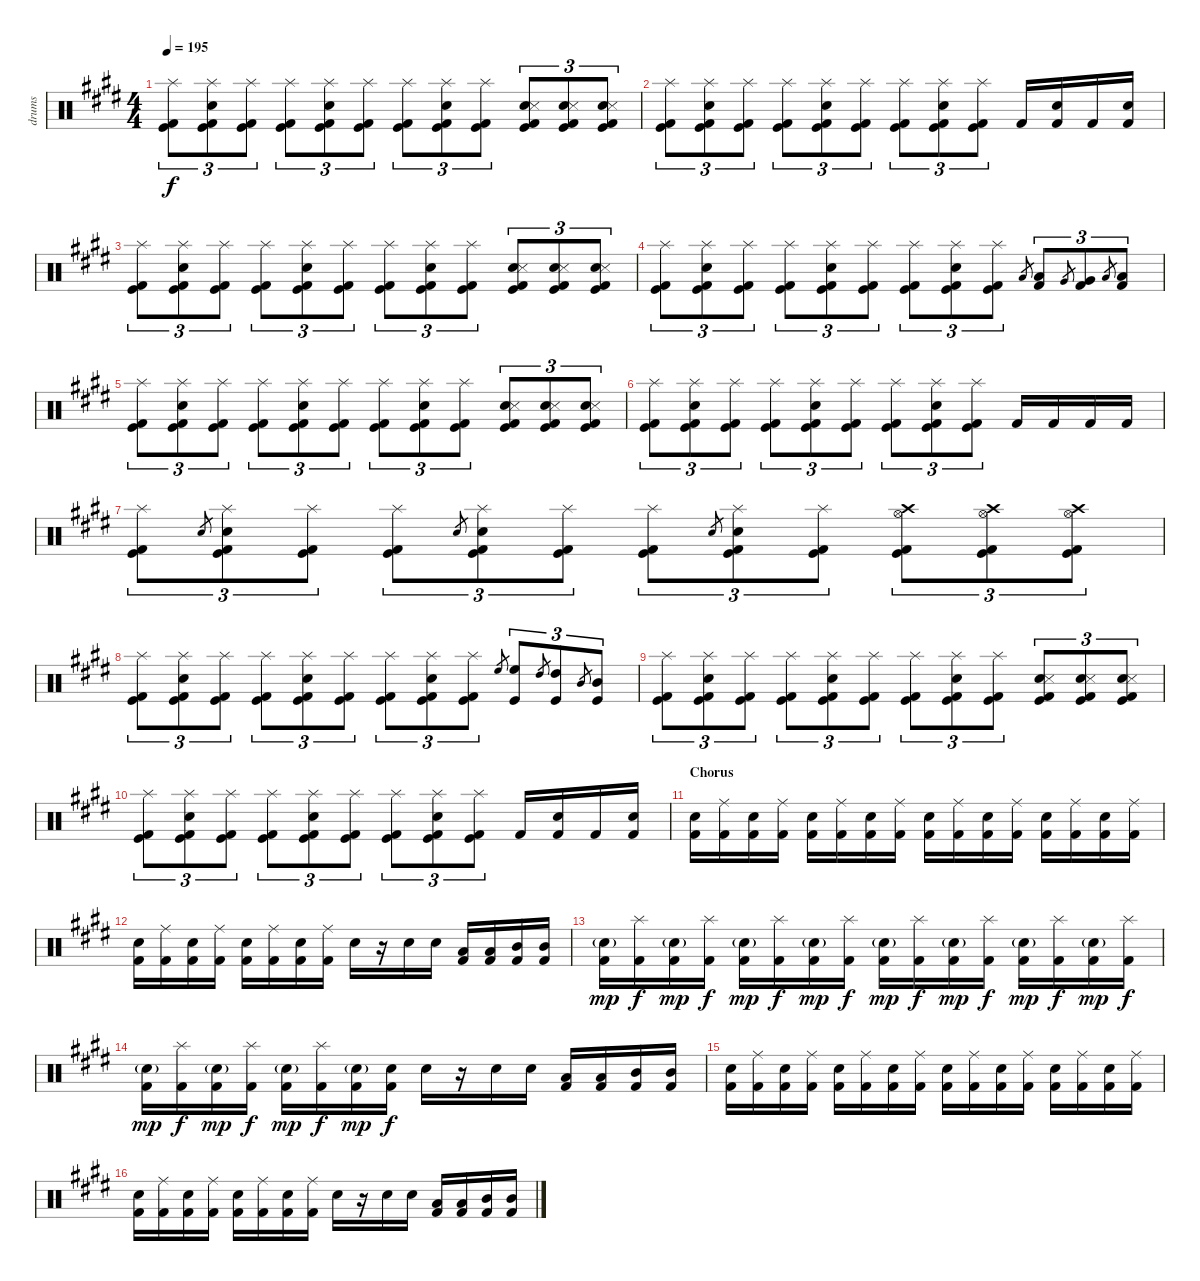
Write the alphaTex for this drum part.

\track ("drums" "drums") {instrument percussion}
\staff {score}
\articulation defaults
\ts (4 4)
\tempo 195
\clef neutral
\ks e
("Kick (hit) 2" "Kick (hit)" "Splash (hit)").8{tu (3 2) dy f} ("Kick (hit) 2" "Kick (hit)" "Splash (hit)" "Snare (hit) 2").8{tu (3 2)} ("Kick (hit) 2" "Kick (hit)" "Splash (hit)").8{tu (3 2)} ("Kick (hit) 2" "Kick (hit)" "Splash (hit)").8{tu (3 2)} ("Kick (hit) 2" "Kick (hit)" "Splash (hit)" "Snare (hit) 2").8{tu (3 2)} ("Kick (hit) 2" "Kick (hit)" "Splash (hit)").8{tu (3 2)} ("Kick (hit) 2" "Kick (hit)" "Splash (hit)").8{tu (3 2)} ("Kick (hit) 2" "Kick (hit)" "Splash (hit)" "Snare (hit) 2").8{tu (3 2)} ("Kick (hit) 2" "Kick (hit)" "Splash (hit)").8{tu (3 2)} ("Kick (hit) 2" "Kick (hit)" "Electric Snare (hit)" "Snare (side stick) 3").8{tu (3 2)} ("Kick (hit) 2" "Kick (hit)" "Electric Snare (hit)" "Snare (side stick) 3").8{tu (3 2)} ("Kick (hit) 2" "Kick (hit)" "Electric Snare (hit)" "Snare (side stick) 3").8{tu (3 2)} |
("Kick (hit) 2" "Kick (hit)" "Splash (hit)").8{tu (3 2)} ("Kick (hit) 2" "Kick (hit)" "Splash (hit)" "Snare (hit) 2").8{tu (3 2)} ("Kick (hit) 2" "Kick (hit)" "Splash (hit)").8{tu (3 2)} ("Kick (hit) 2" "Kick (hit)" "Splash (hit)").8{tu (3 2)} ("Kick (hit) 2" "Kick (hit)" "Splash (hit)" "Snare (hit) 2").8{tu (3 2)} ("Kick (hit) 2" "Kick (hit)" "Splash (hit)").8{tu (3 2)} ("Kick (hit) 2" "Kick (hit)" "Splash (hit)").8{tu (3 2)} ("Kick (hit) 2" "Kick (hit)" "Splash (hit)" "Snare (hit) 2").8{tu (3 2)} ("Kick (hit) 2" "Kick (hit)" "Splash (hit)").8{tu (3 2)} "Kick (hit) 2".16 ("Snare (hit) 2" "Kick (hit) 2").16 "Kick (hit) 2".16 ("Snare (hit) 2" "Kick (hit) 2").16 |
("Kick (hit) 2" "Kick (hit)" "Splash (hit)").8{tu (3 2)} ("Kick (hit) 2" "Kick (hit)" "Splash (hit)" "Snare (hit) 2").8{tu (3 2)} ("Kick (hit) 2" "Kick (hit)" "Splash (hit)").8{tu (3 2)} ("Kick (hit) 2" "Kick (hit)" "Splash (hit)").8{tu (3 2)} ("Kick (hit) 2" "Kick (hit)" "Splash (hit)" "Snare (hit) 2").8{tu (3 2)} ("Kick (hit) 2" "Kick (hit)" "Splash (hit)").8{tu (3 2)} ("Kick (hit) 2" "Kick (hit)" "Splash (hit)").8{tu (3 2)} ("Kick (hit) 2" "Kick (hit)" "Splash (hit)" "Snare (hit) 2").8{tu (3 2)} ("Kick (hit) 2" "Kick (hit)" "Splash (hit)").8{tu (3 2)} ("Kick (hit) 2" "Kick (hit)" "Electric Snare (hit)" "Snare (side stick) 3").8{tu (3 2)} ("Kick (hit) 2" "Kick (hit)" "Electric Snare (hit)" "Snare (side stick) 3").8{tu (3 2)} ("Kick (hit) 2" "Kick (hit)" "Electric Snare (hit)" "Snare (side stick) 3").8{tu (3 2)} |
("Kick (hit) 2" "Kick (hit)" "Splash (hit)").8{tu (3 2)} ("Kick (hit) 2" "Kick (hit)" "Splash (hit)" "Snare (hit) 2").8{tu (3 2)} ("Kick (hit) 2" "Kick (hit)" "Splash (hit)").8{tu (3 2)} ("Kick (hit) 2" "Kick (hit)" "Splash (hit)").8{tu (3 2)} ("Kick (hit) 2" "Kick (hit)" "Splash (hit)" "Snare (hit) 2").8{tu (3 2)} ("Kick (hit) 2" "Kick (hit)" "Splash (hit)").8{tu (3 2)} ("Kick (hit) 2" "Kick (hit)" "Splash (hit)").8{tu (3 2)} ("Kick (hit) 2" "Kick (hit)" "Splash (hit)" "Snare (hit) 2").8{tu (3 2)} ("Kick (hit) 2" "Kick (hit)" "Splash (hit)").8{tu (3 2)} "Low Tom (hit)".8{gr} ("Low Tom (hit)" "Kick (hit) 2").8{tu (3 2)} "Very Low Tom (hit)".8{gr} ("Very Low Tom (hit)" "Kick (hit) 2").8{tu (3 2)} "Low Floor Tom (hit)".8{gr} ("Low Floor Tom (hit)" "Kick (hit) 2").8{tu (3 2)} |
("Kick (hit) 2" "Kick (hit)" "Splash (hit)").8{tu (3 2)} ("Kick (hit) 2" "Kick (hit)" "Splash (hit)" "Snare (hit) 2").8{tu (3 2)} ("Kick (hit) 2" "Kick (hit)" "Splash (hit)").8{tu (3 2)} ("Kick (hit) 2" "Kick (hit)" "Splash (hit)").8{tu (3 2)} ("Kick (hit) 2" "Kick (hit)" "Splash (hit)" "Snare (hit) 2").8{tu (3 2)} ("Kick (hit) 2" "Kick (hit)" "Splash (hit)").8{tu (3 2)} ("Kick (hit) 2" "Kick (hit)" "Splash (hit)").8{tu (3 2)} ("Kick (hit) 2" "Kick (hit)" "Splash (hit)" "Snare (hit) 2").8{tu (3 2)} ("Kick (hit) 2" "Kick (hit)" "Splash (hit)").8{tu (3 2)} ("Kick (hit) 2" "Kick (hit)" "Electric Snare (hit)" "Snare (side stick) 3").8{tu (3 2)} ("Kick (hit) 2" "Kick (hit)" "Electric Snare (hit)" "Snare (side stick) 3").8{tu (3 2)} ("Kick (hit) 2" "Kick (hit)" "Electric Snare (hit)" "Snare (side stick) 3").8{tu (3 2)} |
("Kick (hit) 2" "Kick (hit)" "Splash (hit)").8{tu (3 2)} ("Kick (hit) 2" "Kick (hit)" "Splash (hit)" "Snare (hit) 2").8{tu (3 2)} ("Kick (hit) 2" "Kick (hit)" "Splash (hit)").8{tu (3 2)} ("Kick (hit) 2" "Kick (hit)" "Splash (hit)").8{tu (3 2)} ("Kick (hit) 2" "Kick (hit)" "Splash (hit)" "Snare (hit) 2").8{tu (3 2)} ("Kick (hit) 2" "Kick (hit)" "Splash (hit)").8{tu (3 2)} ("Kick (hit) 2" "Kick (hit)" "Splash (hit)").8{tu (3 2)} ("Kick (hit) 2" "Kick (hit)" "Splash (hit)" "Snare (hit) 2").8{tu (3 2)} ("Kick (hit) 2" "Kick (hit)" "Splash (hit)").8{tu (3 2)} "Kick (hit) 2".16 "Kick (hit) 2".16 "Kick (hit) 2".16 "Kick (hit) 2".16 |
("Kick (hit) 2" "Kick (hit)" "Splash (hit)").8{tu (3 2)} "Snare (hit) 2".8{gr} ("Kick (hit) 2" "Kick (hit)" "Splash (hit)" "Snare (hit) 2").8{tu (3 2)} ("Kick (hit) 2" "Kick (hit)" "Splash (hit)").8{tu (3 2)} ("Kick (hit) 2" "Kick (hit)" "Splash (hit)").8{tu (3 2)} "Snare (hit) 2".8{gr} ("Kick (hit) 2" "Kick (hit)" "Splash (hit)" "Snare (hit) 2").8{tu (3 2)} ("Kick (hit) 2" "Kick (hit)" "Splash (hit)").8{tu (3 2)} ("Kick (hit) 2" "Kick (hit)" "Splash (hit)").8{tu (3 2)} "Snare (hit) 2".8{gr} ("Kick (hit) 2" "Kick (hit)" "Splash (hit)" "Snare (hit) 2").8{tu (3 2)} ("Kick (hit) 2" "Kick (hit)" "Splash (hit)").8{tu (3 2)} ("Kick (hit) 2" "Kick (hit)" "Crash high (hit)" "Hi-Hat (open)").8{tu (3 2)} ("Kick (hit) 2" "Kick (hit)" "Crash high (hit)" "Hi-Hat (open)").8{tu (3 2)} ("Kick (hit) 2" "Kick (hit)" "Crash high (hit)" "Hi-Hat (open)").8{tu (3 2)} |
("Kick (hit) 2" "Kick (hit)" "Splash (hit)").8{tu (3 2)} ("Kick (hit) 2" "Kick (hit)" "Splash (hit)" "Snare (hit) 2").8{tu (3 2)} ("Kick (hit) 2" "Kick (hit)" "Splash (hit)").8{tu (3 2)} ("Kick (hit) 2" "Kick (hit)" "Splash (hit)").8{tu (3 2)} ("Kick (hit) 2" "Kick (hit)" "Splash (hit)" "Snare (hit) 2").8{tu (3 2)} ("Kick (hit) 2" "Kick (hit)" "Splash (hit)").8{tu (3 2)} ("Kick (hit) 2" "Kick (hit)" "Splash (hit)").8{tu (3 2)} ("Kick (hit) 2" "Kick (hit)" "Splash (hit)" "Snare (hit) 2").8{tu (3 2)} ("Kick (hit) 2" "Kick (hit)" "Splash (hit)").8{tu (3 2)} "High Floor Tom (hit)".8{gr} ("High Floor Tom (hit)" "Kick (hit)").8{tu (3 2)} "High Tom (hit)".8{gr} ("High Tom (hit)" "Kick (hit)").8{tu (3 2)} "Mid Tom (hit)".8{gr} ("Mid Tom (hit)" "Kick (hit)").8{tu (3 2)} |
("Kick (hit) 2" "Kick (hit)" "Splash (hit)").8{tu (3 2)} ("Kick (hit) 2" "Kick (hit)" "Splash (hit)" "Snare (hit) 2").8{tu (3 2)} ("Kick (hit) 2" "Kick (hit)" "Splash (hit)").8{tu (3 2)} ("Kick (hit) 2" "Kick (hit)" "Splash (hit)").8{tu (3 2)} ("Kick (hit) 2" "Kick (hit)" "Splash (hit)" "Snare (hit) 2").8{tu (3 2)} ("Kick (hit) 2" "Kick (hit)" "Splash (hit)").8{tu (3 2)} ("Kick (hit) 2" "Kick (hit)" "Splash (hit)").8{tu (3 2)} ("Kick (hit) 2" "Kick (hit)" "Splash (hit)" "Snare (hit) 2").8{tu (3 2)} ("Kick (hit) 2" "Kick (hit)" "Splash (hit)").8{tu (3 2)} ("Kick (hit) 2" "Kick (hit)" "Electric Snare (hit)" "Snare (side stick) 3").8{tu (3 2)} ("Kick (hit) 2" "Kick (hit)" "Electric Snare (hit)" "Snare (side stick) 3").8{tu (3 2)} ("Kick (hit) 2" "Kick (hit)" "Electric Snare (hit)" "Snare (side stick) 3").8{tu (3 2)} |
("Kick (hit) 2" "Kick (hit)" "Splash (hit)").8{tu (3 2)} ("Kick (hit) 2" "Kick (hit)" "Splash (hit)" "Snare (hit) 2").8{tu (3 2)} ("Kick (hit) 2" "Kick (hit)" "Splash (hit)").8{tu (3 2)} ("Kick (hit) 2" "Kick (hit)" "Splash (hit)").8{tu (3 2)} ("Kick (hit) 2" "Kick (hit)" "Splash (hit)" "Snare (hit) 2").8{tu (3 2)} ("Kick (hit) 2" "Kick (hit)" "Splash (hit)").8{tu (3 2)} ("Kick (hit) 2" "Kick (hit)" "Splash (hit)").8{tu (3 2)} ("Kick (hit) 2" "Kick (hit)" "Splash (hit)" "Snare (hit) 2").8{tu (3 2)} ("Kick (hit) 2" "Kick (hit)" "Splash (hit)").8{tu (3 2)} "Kick (hit) 2".16 ("Snare (hit) 2" "Kick (hit) 2").16 "Kick (hit) 2".16 ("Snare (hit) 2" "Kick (hit) 2").16 |
\section ("" "Chorus")
("Kick (hit) 2" "Electric Snare (hit)").16 ("Kick (hit) 2" "Ride (middle)").16 ("Kick (hit) 2" "Electric Snare (hit)").16 ("Kick (hit) 2" "Ride (middle)").16 ("Kick (hit) 2" "Electric Snare (hit)").16 ("Kick (hit) 2" "Ride (middle)").16 ("Kick (hit) 2" "Electric Snare (hit)").16 ("Kick (hit) 2" "Ride (middle)").16 ("Kick (hit) 2" "Electric Snare (hit)").16 ("Kick (hit) 2" "Ride (middle)").16 ("Kick (hit) 2" "Electric Snare (hit)").16 ("Kick (hit) 2" "Ride (middle)").16 ("Kick (hit) 2" "Electric Snare (hit)").16 ("Kick (hit) 2" "Ride (middle)").16 ("Kick (hit) 2" "Electric Snare (hit)").16 ("Kick (hit) 2" "Ride (middle)").16 |
("Kick (hit) 2" "Electric Snare (hit)").16 ("Kick (hit) 2" "Ride (middle)").16 ("Kick (hit) 2" "Electric Snare (hit)").16 ("Kick (hit) 2" "Ride (middle)").16 ("Kick (hit) 2" "Electric Snare (hit)").16 ("Kick (hit) 2" "Ride (middle)").16 ("Kick (hit) 2" "Electric Snare (hit)").16 ("Kick (hit) 2" "Ride (middle)").16 "Electric Snare (hit)".16 r.16 "Electric Snare (hit)".16 "Electric Snare (hit)".16 ("Low Tom (hit)" "Kick (hit) 2").16 ("Low Tom (hit)" "Kick (hit) 2").16 ("Mid Tom (hit)" "Kick (hit) 2").16 ("Mid Tom (hit)" "Kick (hit) 2").16 |
("Kick (hit) 2" "Electric Snare (hit)"{g}).16{dy mp} ("Kick (hit) 2" "Splash (hit)").16{dy f} ("Kick (hit) 2" "Electric Snare (hit)"{g}).16{dy mp} ("Kick (hit) 2" "Splash (hit)").16{dy f} ("Kick (hit) 2" "Electric Snare (hit)"{g}).16{dy mp} ("Kick (hit) 2" "Splash (hit)").16{dy f} ("Kick (hit) 2" "Electric Snare (hit)"{g}).16{dy mp} ("Kick (hit) 2" "Splash (hit)").16{dy f} ("Kick (hit) 2" "Electric Snare (hit)"{g}).16{dy mp} ("Kick (hit) 2" "Splash (hit)").16{dy f} ("Kick (hit) 2" "Electric Snare (hit)"{g}).16{dy mp} ("Kick (hit) 2" "Splash (hit)").16{dy f} ("Kick (hit) 2" "Electric Snare (hit)"{g}).16{dy mp} ("Kick (hit) 2" "Splash (hit)").16{dy f} ("Kick (hit) 2" "Electric Snare (hit)"{g}).16{dy mp} ("Kick (hit) 2" "Splash (hit)").16{dy f} |
("Kick (hit) 2" "Electric Snare (hit)"{g}).16{dy mp} ("Kick (hit) 2" "Splash (hit)").16{dy f} ("Kick (hit) 2" "Electric Snare (hit)"{g}).16{dy mp} ("Kick (hit) 2" "Splash (hit)").16{dy f} ("Kick (hit) 2" "Electric Snare (hit)"{g}).16{dy mp} ("Kick (hit) 2" "Splash (hit)").16{dy f} ("Kick (hit) 2" "Electric Snare (hit)"{g}).16{dy mp} ("Kick (hit) 2" "Snare (hit)").16{dy f} "Electric Snare (hit)".16 r.16 "Electric Snare (hit)".16 "Electric Snare (hit)".16 ("Low Tom (hit)" "Kick (hit) 2").16 ("Low Tom (hit)" "Kick (hit) 2").16 ("Mid Tom (hit)" "Kick (hit) 2").16 ("Mid Tom (hit)" "Kick (hit) 2").16 |
("Kick (hit) 2" "Electric Snare (hit)").16 ("Kick (hit) 2" "Ride (middle)").16 ("Kick (hit) 2" "Electric Snare (hit)").16 ("Kick (hit) 2" "Ride (middle)").16 ("Kick (hit) 2" "Electric Snare (hit)").16 ("Kick (hit) 2" "Ride (middle)").16 ("Kick (hit) 2" "Electric Snare (hit)").16 ("Kick (hit) 2" "Ride (middle)").16 ("Kick (hit) 2" "Electric Snare (hit)").16 ("Kick (hit) 2" "Ride (middle)").16 ("Kick (hit) 2" "Electric Snare (hit)").16 ("Kick (hit) 2" "Ride (middle)").16 ("Kick (hit) 2" "Electric Snare (hit)").16 ("Kick (hit) 2" "Ride (middle)").16 ("Kick (hit) 2" "Electric Snare (hit)").16 ("Kick (hit) 2" "Ride (middle)").16 |
("Kick (hit) 2" "Electric Snare (hit)").16 ("Kick (hit) 2" "Ride (middle)").16 ("Kick (hit) 2" "Electric Snare (hit)").16 ("Kick (hit) 2" "Ride (middle)").16 ("Kick (hit) 2" "Electric Snare (hit)").16 ("Kick (hit) 2" "Ride (middle)").16 ("Kick (hit) 2" "Electric Snare (hit)").16 ("Kick (hit) 2" "Ride (middle)").16 "Electric Snare (hit)".16 r.16 "Electric Snare (hit)".16 "Electric Snare (hit)".16 ("Low Tom (hit)" "Kick (hit) 2").16 ("Low Tom (hit)" "Kick (hit) 2").16 ("Mid Tom (hit)" "Kick (hit) 2").16 ("Mid Tom (hit)" "Kick (hit) 2").16
